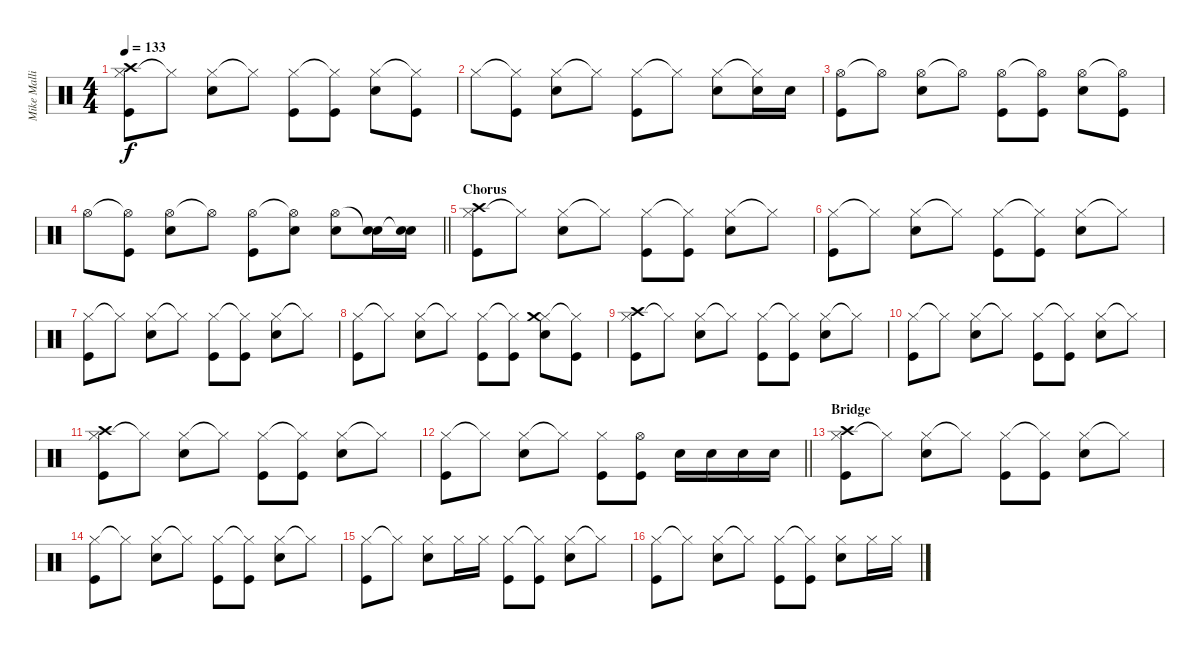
\track ("Mike Mallinin" "Mike Malli") {instrument percussion}
\staff {score}
\articulation defaults
\ts (4 4)
\tempo 133
\clef neutral
\ks c
("Hi-Hat (closed)" "Crash high (hit)" "Kick (hit)").8{dy f} "Hi-Hat (closed)"{t}.8 ("Hi-Hat (closed)" "Snare (hit) 2").8 "Hi-Hat (closed)"{t}.8 ("Hi-Hat (closed)" "Kick (hit)").8 ("Hi-Hat (closed)"{t} "Kick (hit)").8 ("Hi-Hat (closed)" "Snare (hit) 2").8 ("Hi-Hat (closed)"{t} "Kick (hit)").8 |
"Hi-Hat (closed)".8 ("Hi-Hat (closed)"{t} "Kick (hit)").8 ("Hi-Hat (closed)" "Snare (hit) 2").8 "Hi-Hat (closed)"{t}.8 ("Hi-Hat (closed)" "Kick (hit)").8 "Hi-Hat (closed)"{t}.8 ("Hi-Hat (closed)" "Snare (hit) 2").8 ("Hi-Hat (closed)"{t} "Snare (hit) 2").16 "Snare (hit) 2".16 |
("Hi-Hat (open)" "Kick (hit)").8 "Hi-Hat (open)"{t}.8 ("Hi-Hat (open)" "Snare (hit) 2").8 "Hi-Hat (open)"{t}.8 ("Hi-Hat (open)" "Kick (hit)").8 ("Hi-Hat (open)"{t} "Kick (hit)").8 ("Hi-Hat (open)" "Snare (hit) 2").8 ("Hi-Hat (open)"{t} "Kick (hit)").8 |
\barLineRight lightlight "Hi-Hat (open)".8
("Hi-Hat (open)"{t} "Kick (hit)").8 ("Hi-Hat (open)" "Snare (hit) 2").8 "Hi-Hat (open)"{t}.8 ("Hi-Hat (open)" "Kick (hit)").8 ("Hi-Hat (open)"{t} "Snare (hit) 2").8 ("Hi-Hat (open)" "Snare (hit) 2").8 ("Snare (hit)"{t} "Snare (hit) 2").16 ("Snare (hit)"{t} "Snare (hit) 2").16 |
\section ("" "Chorus")
("Hi-Hat (closed)" "Crash high (hit)" "Kick (hit)").8 "Hi-Hat (closed)"{t}.8 ("Hi-Hat (closed)" "Snare (hit) 2").8 "Hi-Hat (closed)"{t}.8 ("Hi-Hat (closed)" "Kick (hit)").8 ("Hi-Hat (closed)"{t} "Kick (hit)").8 ("Hi-Hat (closed)" "Snare (hit) 2").8 "Hi-Hat (closed)"{t}.8 |
("Hi-Hat (closed)" "Kick (hit)").8 "Hi-Hat (closed)"{t}.8 ("Hi-Hat (closed)" "Snare (hit) 2").8 "Hi-Hat (closed)"{t}.8 ("Hi-Hat (closed)" "Kick (hit)").8 ("Hi-Hat (closed)"{t} "Kick (hit)").8 ("Hi-Hat (closed)" "Snare (hit) 2").8 "Hi-Hat (closed)"{t}.8 |
("Hi-Hat (closed)" "Kick (hit)").8 "Hi-Hat (closed)"{t}.8 ("Hi-Hat (closed)" "Snare (hit) 2").8 "Hi-Hat (closed)"{t}.8 ("Hi-Hat (closed)" "Kick (hit)").8 ("Hi-Hat (closed)"{t} "Kick (hit)").8 ("Hi-Hat (closed)" "Snare (hit) 2").8 "Hi-Hat (closed)"{t}.8 |
("Hi-Hat (closed)" "Kick (hit)").8 "Hi-Hat (closed)"{t}.8 ("Hi-Hat (closed)" "Snare (hit) 2").8 "Hi-Hat (closed)"{t}.8 ("Hi-Hat (closed)" "Kick (hit)").8 ("Hi-Hat (closed)"{t} "Kick (hit)").8 ("Hi-Hat (closed)" "Crash medium (hit)" "Snare (hit) 2").8 ("Hi-Hat (closed)"{t} "Kick (hit)").8 |
("Hi-Hat (closed)" "Crash high (hit)" "Kick (hit)").8 "Hi-Hat (closed)"{t}.8 ("Hi-Hat (closed)" "Snare (hit) 2").8 "Hi-Hat (closed)"{t}.8 ("Hi-Hat (closed)" "Kick (hit)").8 ("Hi-Hat (closed)"{t} "Kick (hit)").8 ("Hi-Hat (closed)" "Snare (hit) 2").8 "Hi-Hat (closed)"{t}.8 |
("Hi-Hat (closed)" "Kick (hit)").8 "Hi-Hat (closed)"{t}.8 ("Hi-Hat (closed)" "Snare (hit) 2").8 "Hi-Hat (closed)"{t}.8 ("Hi-Hat (closed)" "Kick (hit)").8 ("Hi-Hat (closed)"{t} "Kick (hit)").8 ("Hi-Hat (closed)" "Snare (hit) 2").8 "Hi-Hat (closed)"{t}.8 |
("Hi-Hat (closed)" "Crash high (hit)" "Kick (hit)").8 "Hi-Hat (closed)"{t}.8 ("Hi-Hat (closed)" "Snare (hit) 2").8 "Hi-Hat (closed)"{t}.8 ("Hi-Hat (closed)" "Kick (hit)").8 ("Hi-Hat (closed)"{t} "Kick (hit)").8 ("Hi-Hat (closed)" "Snare (hit) 2").8 "Hi-Hat (closed)"{t}.8 |
\barLineRight lightlight
("Hi-Hat (closed)" "Kick (hit)").8 "Hi-Hat (closed)"{t}.8 ("Hi-Hat (closed)" "Snare (hit) 2").8 "Hi-Hat (closed)"{t}.8 ("Hi-Hat (closed)" "Kick (hit)").8 ("Hi-Hat (open)" "Kick (hit)").8 "Snare (hit) 2".16 "Snare (hit) 2".16 "Snare (hit) 2".16 "Snare (hit) 2".16 |
\section ("" "Bridge")
("Hi-Hat (closed)" "Crash high (hit)" "Kick (hit)").8 "Hi-Hat (closed)"{t}.8 ("Hi-Hat (closed)" "Snare (hit) 2").8 "Hi-Hat (closed)"{t}.8 ("Hi-Hat (closed)" "Kick (hit)").8 ("Hi-Hat (closed)"{t} "Kick (hit)").8 ("Hi-Hat (closed)" "Snare (hit) 2").8 "Hi-Hat (closed)"{t}.8 |
("Hi-Hat (closed)" "Kick (hit)").8 "Hi-Hat (closed)"{t}.8 ("Hi-Hat (closed)" "Snare (hit) 2").8 "Hi-Hat (closed)"{t}.8 ("Hi-Hat (closed)" "Kick (hit)").8 ("Hi-Hat (closed)"{t} "Kick (hit)").8 ("Hi-Hat (closed)" "Snare (hit) 2").8 "Hi-Hat (closed)"{t}.8 |
("Hi-Hat (closed)" "Kick (hit)").8 "Hi-Hat (closed)"{t}.8 ("Hi-Hat (closed)" "Snare (hit) 2").8 "Hi-Hat (closed)".16 "Hi-Hat (closed)".16 ("Hi-Hat (closed)" "Kick (hit)").8 ("Hi-Hat (closed)"{t} "Kick (hit)").8 ("Hi-Hat (closed)" "Snare (hit) 2").8 "Hi-Hat (closed)"{t}.8 |
("Hi-Hat (closed)" "Kick (hit)").8 "Hi-Hat (closed)"{t}.8 ("Hi-Hat (closed)" "Snare (hit) 2").8 "Hi-Hat (closed)"{t}.8 ("Hi-Hat (closed)" "Kick (hit)").8 ("Hi-Hat (closed)"{t} "Kick (hit)").8 ("Hi-Hat (closed)" "Snare (hit) 2").8 "Hi-Hat (closed)".16 "Hi-Hat (closed)".16
